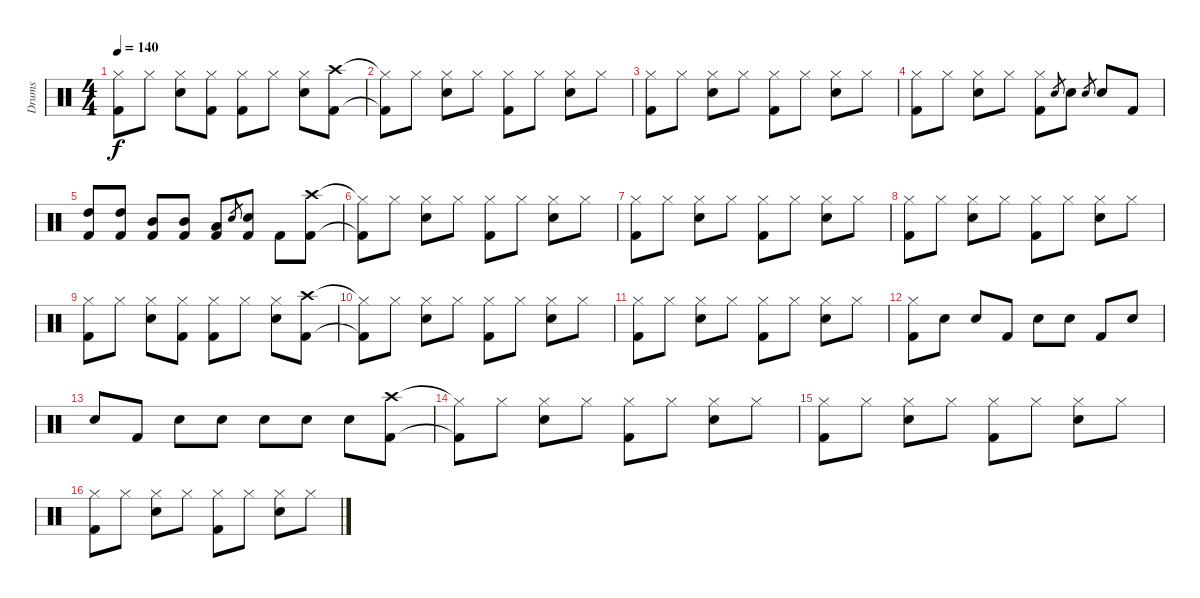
\track ("Drums" "Drums") {instrument percussion}
\staff {score}
\articulation defaults
\ts (4 4)
\tempo 140
\clef neutral
\ks c
("Hi-Hat (closed)" "Kick (hit) 2").8{dy f} "Hi-Hat (closed)".8 ("Hi-Hat (closed)" "Electric Snare (hit)").8 ("Hi-Hat (closed)" "Kick (hit) 2").8 ("Hi-Hat (closed)" "Kick (hit) 2").8 "Hi-Hat (closed)".8 ("Hi-Hat (closed)" "Electric Snare (hit)").8 ("Crash high (hit)" "Kick (hit) 2").8 |
("Hi-Hat (closed)"{t} "Kick (hit) 2"{t}).8 "Hi-Hat (closed)".8 ("Hi-Hat (closed)" "Electric Snare (hit)").8 "Hi-Hat (closed)".8 ("Hi-Hat (closed)" "Kick (hit) 2").8 "Hi-Hat (closed)".8 ("Hi-Hat (closed)" "Electric Snare (hit)").8 "Hi-Hat (closed)".8 |
("Hi-Hat (closed)" "Kick (hit) 2").8 "Hi-Hat (closed)".8 ("Hi-Hat (closed)" "Electric Snare (hit)").8 "Hi-Hat (closed)".8 ("Hi-Hat (closed)" "Kick (hit) 2").8 "Hi-Hat (closed)".8 ("Hi-Hat (closed)" "Electric Snare (hit)").8 "Hi-Hat (closed)".8 |
("Hi-Hat (closed)" "Kick (hit) 2").8 "Hi-Hat (closed)".8 ("Hi-Hat (closed)" "Electric Snare (hit)").8 "Hi-Hat (closed)".8 ("Hi-Hat (closed)" "Kick (hit) 2").8 "Electric Snare (hit)".8{gr} "Electric Snare (hit)".8 "Electric Snare (hit)".8{gr} "Electric Snare (hit)".8 "Kick (hit) 2".8 |
("High Tom (hit)" "Kick (hit) 2").8 ("High Tom (hit)" "Kick (hit) 2").8 ("Mid Tom (hit)" "Kick (hit) 2").8 ("Mid Tom (hit)" "Kick (hit) 2").8 ("Low Tom (hit)" "Kick (hit) 2").8 "Electric Snare (hit)".8{gr} ("Electric Snare (hit)" "Kick (hit) 2").8 "Kick (hit) 2".8 ("Crash high (hit)" "Kick (hit) 2").8 |
("Hi-Hat (closed)"{t} "Kick (hit) 2"{t}).8 "Hi-Hat (closed)".8 ("Hi-Hat (closed)" "Electric Snare (hit)").8 "Hi-Hat (closed)".8 ("Hi-Hat (closed)" "Kick (hit) 2").8 "Hi-Hat (closed)".8 ("Hi-Hat (closed)" "Electric Snare (hit)").8 "Hi-Hat (closed)".8 |
("Hi-Hat (closed)" "Kick (hit) 2").8 "Hi-Hat (closed)".8 ("Hi-Hat (closed)" "Electric Snare (hit)").8 "Hi-Hat (closed)".8 ("Hi-Hat (closed)" "Kick (hit) 2").8 "Hi-Hat (closed)".8 ("Hi-Hat (closed)" "Electric Snare (hit)").8 "Hi-Hat (closed)".8 |
("Hi-Hat (closed)" "Kick (hit) 2").8 "Hi-Hat (closed)".8 ("Hi-Hat (closed)" "Electric Snare (hit)").8 "Hi-Hat (closed)".8 ("Hi-Hat (closed)" "Kick (hit) 2").8 "Hi-Hat (closed)".8 ("Hi-Hat (closed)" "Electric Snare (hit)").8 "Hi-Hat (closed)".8 |
("Hi-Hat (closed)" "Kick (hit) 2").8 "Hi-Hat (closed)".8 ("Hi-Hat (closed)" "Electric Snare (hit)").8 ("Hi-Hat (closed)" "Kick (hit) 2").8 ("Hi-Hat (closed)" "Kick (hit) 2").8 "Hi-Hat (closed)".8 ("Hi-Hat (closed)" "Electric Snare (hit)").8 ("Crash high (hit)" "Kick (hit) 2").8 |
("Hi-Hat (closed)"{t} "Kick (hit) 2"{t}).8 "Hi-Hat (closed)".8 ("Hi-Hat (closed)" "Electric Snare (hit)").8 "Hi-Hat (closed)".8 ("Hi-Hat (closed)" "Kick (hit) 2").8 "Hi-Hat (closed)".8 ("Hi-Hat (closed)" "Electric Snare (hit)").8 "Hi-Hat (closed)".8 |
("Hi-Hat (closed)" "Kick (hit) 2").8 "Hi-Hat (closed)".8 ("Hi-Hat (closed)" "Electric Snare (hit)").8 "Hi-Hat (closed)".8 ("Hi-Hat (closed)" "Kick (hit) 2").8 "Hi-Hat (closed)".8 ("Hi-Hat (closed)" "Electric Snare (hit)").8 "Hi-Hat (closed)".8 |
("Hi-Hat (closed)" "Kick (hit) 2").8 "Electric Snare (hit)".8 "Electric Snare (hit)".8 "Kick (hit) 2".8 "Electric Snare (hit)".8 "Electric Snare (hit)".8 "Kick (hit) 2".8 "Electric Snare (hit)".8 |
"Electric Snare (hit)".8 "Kick (hit) 2".8 "Electric Snare (hit)".8 "Electric Snare (hit)".8 "Electric Snare (hit)".8 "Electric Snare (hit)".8 "Electric Snare (hit)".8 ("Crash high (hit)" "Kick (hit) 2").8 |
("Hi-Hat (closed)"{t} "Kick (hit) 2"{t}).8 "Hi-Hat (closed)".8 ("Hi-Hat (closed)" "Electric Snare (hit)").8 "Hi-Hat (closed)".8 ("Hi-Hat (closed)" "Kick (hit) 2").8 "Hi-Hat (closed)".8 ("Hi-Hat (closed)" "Electric Snare (hit)").8 "Hi-Hat (closed)".8 |
("Hi-Hat (closed)" "Kick (hit) 2").8 "Hi-Hat (closed)".8 ("Hi-Hat (closed)" "Electric Snare (hit)").8 "Hi-Hat (closed)".8 ("Hi-Hat (closed)" "Kick (hit) 2").8 "Hi-Hat (closed)".8 ("Hi-Hat (closed)" "Electric Snare (hit)").8 "Hi-Hat (closed)".8 |
("Hi-Hat (closed)" "Kick (hit) 2").8 "Hi-Hat (closed)".8 ("Hi-Hat (closed)" "Electric Snare (hit)").8 "Hi-Hat (closed)".8 ("Hi-Hat (closed)" "Kick (hit) 2").8 "Hi-Hat (closed)".8 ("Hi-Hat (closed)" "Electric Snare (hit)").8 "Hi-Hat (closed)".8
